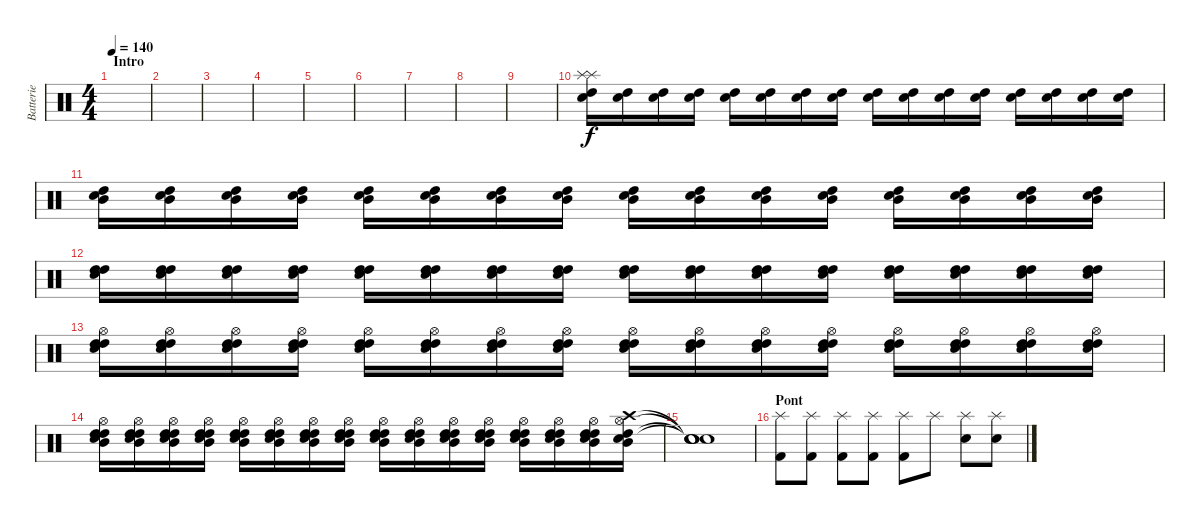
\track ("Batterie" "Batterie") {instrument percussion}
\staff {score}
\articulation defaults
\ts (4 4)
\section ("" "Intro")
\tempo 140
\clef neutral
\ks c
|
|
|
|
|
|
|
|
|
("Snare (hit) 2" "High Tom (hit)" "Splash (hit)" "Splash (hit)").16 ("Snare (hit) 2" "High Tom (hit)").16 ("Snare (hit) 2" "High Tom (hit)").16 ("Snare (hit) 2" "High Tom (hit)").16 ("Snare (hit) 2" "High Tom (hit)").16 ("Snare (hit) 2" "High Tom (hit)").16 ("Snare (hit) 2" "High Tom (hit)").16 ("Snare (hit) 2" "High Tom (hit)").16 ("Snare (hit) 2" "High Tom (hit)").16 ("Snare (hit) 2" "High Tom (hit)").16 ("Snare (hit) 2" "High Tom (hit)").16 ("Snare (hit) 2" "High Tom (hit)").16 ("Snare (hit) 2" "High Tom (hit)").16 ("Snare (hit) 2" "High Tom (hit)").16 ("Snare (hit) 2" "High Tom (hit)").16 ("Snare (hit) 2" "High Tom (hit)").16 |
("Snare (hit) 2" "High Tom (hit)" "Mid Tom (hit)").16{volume 12} ("Snare (hit) 2" "High Tom (hit)" "Mid Tom (hit)").16 ("Snare (hit) 2" "High Tom (hit)" "Mid Tom (hit)").16 ("Snare (hit) 2" "High Tom (hit)" "Mid Tom (hit)").16 ("Snare (hit) 2" "High Tom (hit)" "Mid Tom (hit)").16 ("Snare (hit) 2" "High Tom (hit)" "Mid Tom (hit)").16 ("Snare (hit) 2" "High Tom (hit)" "Mid Tom (hit)").16 ("Snare (hit) 2" "High Tom (hit)" "Mid Tom (hit)").16 ("Snare (hit) 2" "High Tom (hit)" "Mid Tom (hit)").16 ("Snare (hit) 2" "High Tom (hit)" "Mid Tom (hit)").16 ("Snare (hit) 2" "High Tom (hit)" "Mid Tom (hit)").16 ("Snare (hit) 2" "High Tom (hit)" "Mid Tom (hit)").16 ("Snare (hit) 2" "High Tom (hit)" "Mid Tom (hit)").16 ("Snare (hit) 2" "High Tom (hit)" "Mid Tom (hit)").16 ("Snare (hit) 2" "High Tom (hit)" "Mid Tom (hit)").16 ("Snare (hit) 2" "High Tom (hit)" "Mid Tom (hit)").16 |
("Snare (hit) 2" "High Tom (hit)" "High Tom (hit)").16{volume 13} ("Snare (hit) 2" "High Tom (hit)" "High Tom (hit)").16 ("Snare (hit) 2" "High Tom (hit)" "High Tom (hit)").16 ("Snare (hit) 2" "High Tom (hit)" "High Tom (hit)").16 ("Snare (hit) 2" "High Tom (hit)" "High Tom (hit)").16 ("Snare (hit) 2" "High Tom (hit)" "High Tom (hit)").16 ("Snare (hit) 2" "High Tom (hit)" "High Tom (hit)").16 ("Snare (hit) 2" "High Tom (hit)" "High Tom (hit)").16 ("Snare (hit) 2" "High Tom (hit)" "High Tom (hit)").16 ("Snare (hit) 2" "High Tom (hit)" "High Tom (hit)").16 ("Snare (hit) 2" "High Tom (hit)" "High Tom (hit)").16 ("Snare (hit) 2" "High Tom (hit)" "High Tom (hit)").16 ("Snare (hit) 2" "High Tom (hit)" "High Tom (hit)").16 ("Snare (hit) 2" "High Tom (hit)" "High Tom (hit)").16 ("Snare (hit) 2" "High Tom (hit)" "High Tom (hit)").16 ("Snare (hit) 2" "High Tom (hit)" "High Tom (hit)").16 |
("Snare (hit) 2" "High Tom (hit)" "Hi-Hat (open)" "High Tom (hit)").16{volume 14} ("Snare (hit) 2" "High Tom (hit)" "Hi-Hat (open)" "High Tom (hit)").16 ("Snare (hit) 2" "High Tom (hit)" "Hi-Hat (open)" "High Tom (hit)").16 ("Snare (hit) 2" "High Tom (hit)" "Hi-Hat (open)" "High Tom (hit)").16 ("Snare (hit) 2" "High Tom (hit)" "Hi-Hat (open)" "High Tom (hit)").16 ("Snare (hit) 2" "High Tom (hit)" "Hi-Hat (open)" "High Tom (hit)").16 ("Snare (hit) 2" "High Tom (hit)" "Hi-Hat (open)" "High Tom (hit)").16 ("Snare (hit) 2" "High Tom (hit)" "Hi-Hat (open)" "High Tom (hit)").16 ("Snare (hit) 2" "High Tom (hit)" "Hi-Hat (open)" "High Tom (hit)").16 ("Snare (hit) 2" "High Tom (hit)" "Hi-Hat (open)" "High Tom (hit)").16 ("Snare (hit) 2" "High Tom (hit)" "Hi-Hat (open)" "High Tom (hit)").16 ("Snare (hit) 2" "High Tom (hit)" "Hi-Hat (open)" "High Tom (hit)").16 ("Snare (hit) 2" "High Tom (hit)" "Hi-Hat (open)" "High Tom (hit)").16 ("Snare (hit) 2" "High Tom (hit)" "Hi-Hat (open)" "High Tom (hit)").16 ("Snare (hit) 2" "High Tom (hit)" "Hi-Hat (open)" "High Tom (hit)").16 ("Snare (hit) 2" "High Tom (hit)" "Hi-Hat (open)" "High Tom (hit)").16 |
("Snare (hit) 2" "High Tom (hit)" "Hi-Hat (open)" "High Tom (hit)" "Mid Tom (hit)").16{volume 15} ("Snare (hit) 2" "High Tom (hit)" "Hi-Hat (open)" "High Tom (hit)" "Mid Tom (hit)").16 ("Snare (hit) 2" "High Tom (hit)" "Hi-Hat (open)" "High Tom (hit)" "Mid Tom (hit)").16 ("Snare (hit) 2" "High Tom (hit)" "Hi-Hat (open)" "High Tom (hit)" "Mid Tom (hit)").16 ("Snare (hit) 2" "High Tom (hit)" "Hi-Hat (open)" "High Tom (hit)" "Mid Tom (hit)").16 ("Snare (hit) 2" "High Tom (hit)" "Hi-Hat (open)" "High Tom (hit)" "Mid Tom (hit)").16 ("Snare (hit) 2" "High Tom (hit)" "Hi-Hat (open)" "High Tom (hit)" "Mid Tom (hit)").16 ("Snare (hit) 2" "High Tom (hit)" "Hi-Hat (open)" "High Tom (hit)" "Mid Tom (hit)").16 ("Snare (hit) 2" "High Tom (hit)" "Hi-Hat (open)" "High Tom (hit)" "Mid Tom (hit)").16 ("Snare (hit) 2" "High Tom (hit)" "Hi-Hat (open)" "High Tom (hit)" "Mid Tom (hit)").16 ("Snare (hit) 2" "High Tom (hit)" "Hi-Hat (open)" "High Tom (hit)" "Mid Tom (hit)").16 ("Snare (hit) 2" "High Tom (hit)" "Hi-Hat (open)" "High Tom (hit)" "Mid Tom (hit)").16 ("Snare (hit) 2" "High Tom (hit)" "Hi-Hat (open)" "High Tom (hit)" "Mid Tom (hit)").16 ("Snare (hit) 2" "High Tom (hit)" "Hi-Hat (open)" "High Tom (hit)" "Mid Tom (hit)").16 ("Snare (hit) 2" "High Tom (hit)" "Hi-Hat (open)" "High Tom (hit)" "Mid Tom (hit)").16 ("Snare (hit) 2" "High Tom (hit)" "Hi-Hat (open)" "Crash high (hit)" "Mid Tom (hit)").16{volume 16} |
("Snare (hit)"{t} "Snare (hit)"{t} "Snare (hit)"{t} "Snare (hit)"{t}).1 |
\section ("" "Pont")
("Splash (hit)" "Kick (hit) 2").8{volume 13} ("Splash (hit)" "Kick (hit) 2").8 ("Splash (hit)" "Kick (hit) 2").8 ("Splash (hit)" "Kick (hit) 2").8 ("Splash (hit)" "Kick (hit) 2").8 "Splash (hit)".8 ("Splash (hit)" "Snare (hit) 2").8 ("Splash (hit)" "Snare (hit) 2").8
